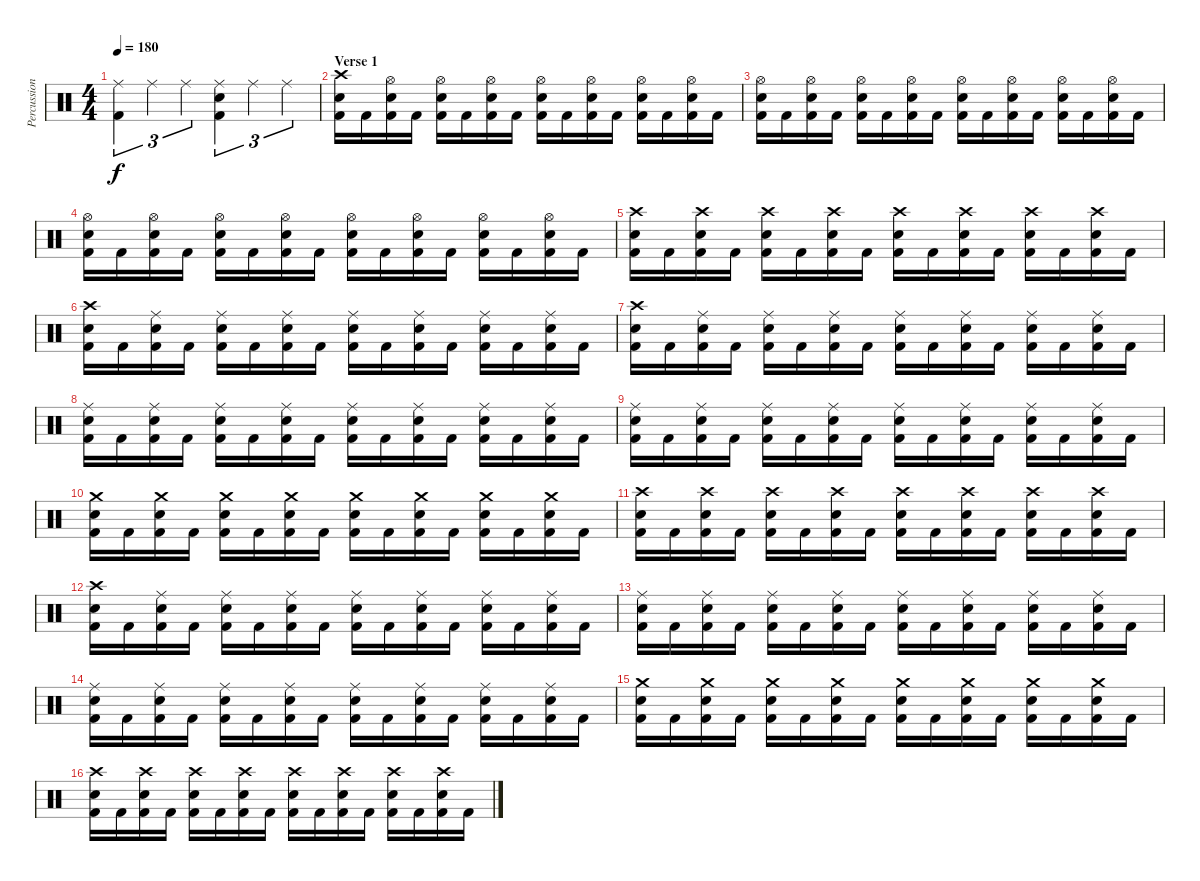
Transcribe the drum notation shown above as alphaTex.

\track ("Percussion" "Percussion") {instrument percussion}
\staff {score}
\articulation defaults
\ts (4 4)
\tempo 180
\clef neutral
\ks c
("Ride (middle)" "Kick (hit) 2").4{tu (3 2) dy f} "Ride (middle)".4{tu (3 2)} "Ride (middle)".4{tu (3 2)} ("Ride (middle)" "Snare (hit) 2" "Kick (hit) 2").4{tu (3 2)} "Ride (middle)".4{tu (3 2)} "Ride (middle)".4{tu (3 2)} |
\section ("" "Verse 1")
("Crash high (hit)" "Snare (hit) 2" "Kick (hit) 2").16 "Kick (hit) 2".16 ("Hi-Hat (open)" "Snare (hit) 2" "Kick (hit) 2").16 "Kick (hit) 2".16 ("Hi-Hat (open)" "Snare (hit) 2" "Kick (hit) 2").16 "Kick (hit) 2".16 ("Hi-Hat (open)" "Snare (hit) 2" "Kick (hit) 2").16 "Kick (hit) 2".16 ("Hi-Hat (open)" "Snare (hit) 2" "Kick (hit) 2").16 "Kick (hit) 2".16 ("Hi-Hat (open)" "Snare (hit) 2" "Kick (hit) 2").16 "Kick (hit) 2".16 ("Hi-Hat (open)" "Snare (hit) 2" "Kick (hit) 2").16 "Kick (hit) 2".16 ("Hi-Hat (open)" "Snare (hit) 2" "Kick (hit) 2").16 "Kick (hit) 2".16 |
("Hi-Hat (open)" "Snare (hit) 2" "Kick (hit) 2").16 "Kick (hit) 2".16 ("Hi-Hat (open)" "Snare (hit) 2" "Kick (hit) 2").16 "Kick (hit) 2".16 ("Hi-Hat (open)" "Snare (hit) 2" "Kick (hit) 2").16 "Kick (hit) 2".16 ("Hi-Hat (open)" "Snare (hit) 2" "Kick (hit) 2").16 "Kick (hit) 2".16 ("Hi-Hat (open)" "Snare (hit) 2" "Kick (hit) 2").16 "Kick (hit) 2".16 ("Hi-Hat (open)" "Snare (hit) 2" "Kick (hit) 2").16 "Kick (hit) 2".16 ("Hi-Hat (open)" "Snare (hit) 2" "Kick (hit) 2").16 "Kick (hit) 2".16 ("Hi-Hat (open)" "Snare (hit) 2" "Kick (hit) 2").16 "Kick (hit) 2".16 |
("Hi-Hat (open)" "Snare (hit) 2" "Kick (hit) 2").16 "Kick (hit) 2".16 ("Hi-Hat (open)" "Snare (hit) 2" "Kick (hit) 2").16 "Kick (hit) 2".16 ("Hi-Hat (open)" "Snare (hit) 2" "Kick (hit) 2").16 "Kick (hit) 2".16 ("Hi-Hat (open)" "Snare (hit) 2" "Kick (hit) 2").16 "Kick (hit) 2".16 ("Hi-Hat (open)" "Snare (hit) 2" "Kick (hit) 2").16 "Kick (hit) 2".16 ("Hi-Hat (open)" "Snare (hit) 2" "Kick (hit) 2").16 "Kick (hit) 2".16 ("Hi-Hat (open)" "Snare (hit) 2" "Kick (hit) 2").16 "Kick (hit) 2".16 ("Hi-Hat (open)" "Snare (hit) 2" "Kick (hit) 2").16 "Kick (hit) 2".16 |
("Crash high (hit)" "Snare (hit) 2" "Kick (hit) 2").16 "Kick (hit) 2".16 ("Crash high (hit)" "Snare (hit) 2" "Kick (hit) 2").16 "Kick (hit) 2".16 ("Crash high (hit)" "Snare (hit) 2" "Kick (hit) 2").16 "Kick (hit) 2".16 ("Crash high (hit)" "Snare (hit) 2" "Kick (hit) 2").16 "Kick (hit) 2".16 ("Crash high (hit)" "Snare (hit) 2" "Kick (hit) 2").16 "Kick (hit) 2".16 ("Crash high (hit)" "Snare (hit) 2" "Kick (hit) 2").16 "Kick (hit) 2".16 ("Crash high (hit)" "Snare (hit) 2" "Kick (hit) 2").16 "Kick (hit) 2".16 ("Crash high (hit)" "Snare (hit) 2" "Kick (hit) 2").16 "Kick (hit) 2".16 |
("Crash high (hit)" "Snare (hit) 2" "Kick (hit) 2").16 "Kick (hit) 2".16 ("Ride (middle)" "Snare (hit) 2" "Kick (hit) 2").16 "Kick (hit) 2".16 ("Ride (middle)" "Snare (hit) 2" "Kick (hit) 2").16 "Kick (hit) 2".16 ("Ride (middle)" "Snare (hit) 2" "Kick (hit) 2").16 "Kick (hit) 2".16 ("Ride (middle)" "Snare (hit) 2" "Kick (hit) 2").16 "Kick (hit) 2".16 ("Ride (middle)" "Snare (hit) 2" "Kick (hit) 2").16 "Kick (hit) 2".16 ("Ride (middle)" "Snare (hit) 2" "Kick (hit) 2").16 "Kick (hit) 2".16 ("Ride (middle)" "Snare (hit) 2" "Kick (hit) 2").16 "Kick (hit) 2".16 |
("Crash high (hit)" "Snare (hit) 2" "Kick (hit) 2").16 "Kick (hit) 2".16 ("Ride (middle)" "Snare (hit) 2" "Kick (hit) 2").16 "Kick (hit) 2".16 ("Ride (middle)" "Snare (hit) 2" "Kick (hit) 2").16 "Kick (hit) 2".16 ("Ride (middle)" "Snare (hit) 2" "Kick (hit) 2").16 "Kick (hit) 2".16 ("Ride (middle)" "Snare (hit) 2" "Kick (hit) 2").16 "Kick (hit) 2".16 ("Ride (middle)" "Snare (hit) 2" "Kick (hit) 2").16 "Kick (hit) 2".16 ("Ride (middle)" "Snare (hit) 2" "Kick (hit) 2").16 "Kick (hit) 2".16 ("Ride (middle)" "Snare (hit) 2" "Kick (hit) 2").16 "Kick (hit) 2".16 |
("Ride (middle)" "Snare (hit) 2" "Kick (hit) 2").16 "Kick (hit) 2".16 ("Ride (middle)" "Snare (hit) 2" "Kick (hit) 2").16 "Kick (hit) 2".16 ("Ride (middle)" "Snare (hit) 2" "Kick (hit) 2").16 "Kick (hit) 2".16 ("Ride (middle)" "Snare (hit) 2" "Kick (hit) 2").16 "Kick (hit) 2".16 ("Ride (middle)" "Snare (hit) 2" "Kick (hit) 2").16 "Kick (hit) 2".16 ("Ride (middle)" "Snare (hit) 2" "Kick (hit) 2").16 "Kick (hit) 2".16 ("Ride (middle)" "Snare (hit) 2" "Kick (hit) 2").16 "Kick (hit) 2".16 ("Ride (middle)" "Snare (hit) 2" "Kick (hit) 2").16 "Kick (hit) 2".16 |
("Ride (middle)" "Snare (hit) 2" "Kick (hit) 2").16 "Kick (hit) 2".16 ("Ride (middle)" "Snare (hit) 2" "Kick (hit) 2").16 "Kick (hit) 2".16 ("Ride (middle)" "Snare (hit) 2" "Kick (hit) 2").16 "Kick (hit) 2".16 ("Ride (middle)" "Snare (hit) 2" "Kick (hit) 2").16 "Kick (hit) 2".16 ("Ride (middle)" "Snare (hit) 2" "Kick (hit) 2").16 "Kick (hit) 2".16 ("Ride (middle)" "Snare (hit) 2" "Kick (hit) 2").16 "Kick (hit) 2".16 ("Ride (middle)" "Snare (hit) 2" "Kick (hit) 2").16 "Kick (hit) 2".16 ("Ride (middle)" "Snare (hit) 2" "Kick (hit) 2").16 "Kick (hit) 2".16 |
("Crash medium (hit)" "Snare (hit) 2" "Kick (hit) 2").16 "Kick (hit) 2".16 ("Crash medium (hit)" "Snare (hit) 2" "Kick (hit) 2").16 "Kick (hit) 2".16 ("Crash medium (hit)" "Snare (hit) 2" "Kick (hit) 2").16 "Kick (hit) 2".16 ("Crash medium (hit)" "Snare (hit) 2" "Kick (hit) 2").16 "Kick (hit) 2".16 ("Crash medium (hit)" "Snare (hit) 2" "Kick (hit) 2").16 "Kick (hit) 2".16 ("Crash medium (hit)" "Snare (hit) 2" "Kick (hit) 2").16 "Kick (hit) 2".16 ("Crash medium (hit)" "Snare (hit) 2" "Kick (hit) 2").16 "Kick (hit) 2".16 ("Crash medium (hit)" "Snare (hit) 2" "Kick (hit) 2").16 "Kick (hit) 2".16 |
("Crash high (hit)" "Snare (hit) 2" "Kick (hit) 2").16 "Kick (hit) 2".16 ("Crash high (hit)" "Snare (hit) 2" "Kick (hit) 2").16 "Kick (hit) 2".16 ("Crash high (hit)" "Snare (hit) 2" "Kick (hit) 2").16 "Kick (hit) 2".16 ("Crash high (hit)" "Snare (hit) 2" "Kick (hit) 2").16 "Kick (hit) 2".16 ("Crash high (hit)" "Snare (hit) 2" "Kick (hit) 2").16 "Kick (hit) 2".16 ("Crash high (hit)" "Snare (hit) 2" "Kick (hit) 2").16 "Kick (hit) 2".16 ("Crash high (hit)" "Snare (hit) 2" "Kick (hit) 2").16 "Kick (hit) 2".16 ("Crash high (hit)" "Snare (hit) 2" "Kick (hit) 2").16 "Kick (hit) 2".16 |
("Crash high (hit)" "Snare (hit) 2" "Kick (hit) 2").16 "Kick (hit) 2".16 ("Ride (middle)" "Snare (hit) 2" "Kick (hit) 2").16 "Kick (hit) 2".16 ("Ride (middle)" "Snare (hit) 2" "Kick (hit) 2").16 "Kick (hit) 2".16 ("Ride (middle)" "Snare (hit) 2" "Kick (hit) 2").16 "Kick (hit) 2".16 ("Ride (middle)" "Snare (hit) 2" "Kick (hit) 2").16 "Kick (hit) 2".16 ("Ride (middle)" "Snare (hit) 2" "Kick (hit) 2").16 "Kick (hit) 2".16 ("Ride (middle)" "Snare (hit) 2" "Kick (hit) 2").16 "Kick (hit) 2".16 ("Ride (middle)" "Snare (hit) 2" "Kick (hit) 2").16 "Kick (hit) 2".16 |
("Ride (middle)" "Snare (hit) 2" "Kick (hit) 2").16 "Kick (hit) 2".16 ("Ride (middle)" "Snare (hit) 2" "Kick (hit) 2").16 "Kick (hit) 2".16 ("Ride (middle)" "Snare (hit) 2" "Kick (hit) 2").16 "Kick (hit) 2".16 ("Ride (middle)" "Snare (hit) 2" "Kick (hit) 2").16 "Kick (hit) 2".16 ("Ride (middle)" "Snare (hit) 2" "Kick (hit) 2").16 "Kick (hit) 2".16 ("Ride (middle)" "Snare (hit) 2" "Kick (hit) 2").16 "Kick (hit) 2".16 ("Ride (middle)" "Snare (hit) 2" "Kick (hit) 2").16 "Kick (hit) 2".16 ("Ride (middle)" "Snare (hit) 2" "Kick (hit) 2").16 "Kick (hit) 2".16 |
("Ride (middle)" "Snare (hit) 2" "Kick (hit) 2").16 "Kick (hit) 2".16 ("Ride (middle)" "Snare (hit) 2" "Kick (hit) 2").16 "Kick (hit) 2".16 ("Ride (middle)" "Snare (hit) 2" "Kick (hit) 2").16 "Kick (hit) 2".16 ("Ride (middle)" "Snare (hit) 2" "Kick (hit) 2").16 "Kick (hit) 2".16 ("Ride (middle)" "Snare (hit) 2" "Kick (hit) 2").16 "Kick (hit) 2".16 ("Ride (middle)" "Snare (hit) 2" "Kick (hit) 2").16 "Kick (hit) 2".16 ("Ride (middle)" "Snare (hit) 2" "Kick (hit) 2").16 "Kick (hit) 2".16 ("Ride (middle)" "Snare (hit) 2" "Kick (hit) 2").16 "Kick (hit) 2".16 |
("Crash medium (hit)" "Snare (hit) 2" "Kick (hit) 2").16 "Kick (hit) 2".16 ("Crash medium (hit)" "Snare (hit) 2" "Kick (hit) 2").16 "Kick (hit) 2".16 ("Crash medium (hit)" "Snare (hit) 2" "Kick (hit) 2").16 "Kick (hit) 2".16 ("Crash medium (hit)" "Snare (hit) 2" "Kick (hit) 2").16 "Kick (hit) 2".16 ("Crash medium (hit)" "Snare (hit) 2" "Kick (hit) 2").16 "Kick (hit) 2".16 ("Crash medium (hit)" "Snare (hit) 2" "Kick (hit) 2").16 "Kick (hit) 2".16 ("Crash medium (hit)" "Snare (hit) 2" "Kick (hit) 2").16 "Kick (hit) 2".16 ("Crash medium (hit)" "Snare (hit) 2" "Kick (hit) 2").16 "Kick (hit) 2".16 |
("Crash high (hit)" "Snare (hit) 2" "Kick (hit) 2").16 "Kick (hit) 2".16 ("Crash high (hit)" "Snare (hit) 2" "Kick (hit) 2").16 "Kick (hit) 2".16 ("Crash high (hit)" "Snare (hit) 2" "Kick (hit) 2").16 "Kick (hit) 2".16 ("Crash high (hit)" "Snare (hit) 2" "Kick (hit) 2").16 "Kick (hit) 2".16 ("Crash high (hit)" "Snare (hit) 2" "Kick (hit) 2").16 "Kick (hit) 2".16 ("Crash high (hit)" "Snare (hit) 2" "Kick (hit) 2").16 "Kick (hit) 2".16 ("Crash high (hit)" "Snare (hit) 2" "Kick (hit) 2").16 "Kick (hit) 2".16 ("Crash high (hit)" "Snare (hit) 2" "Kick (hit) 2").16 "Kick (hit) 2".16
